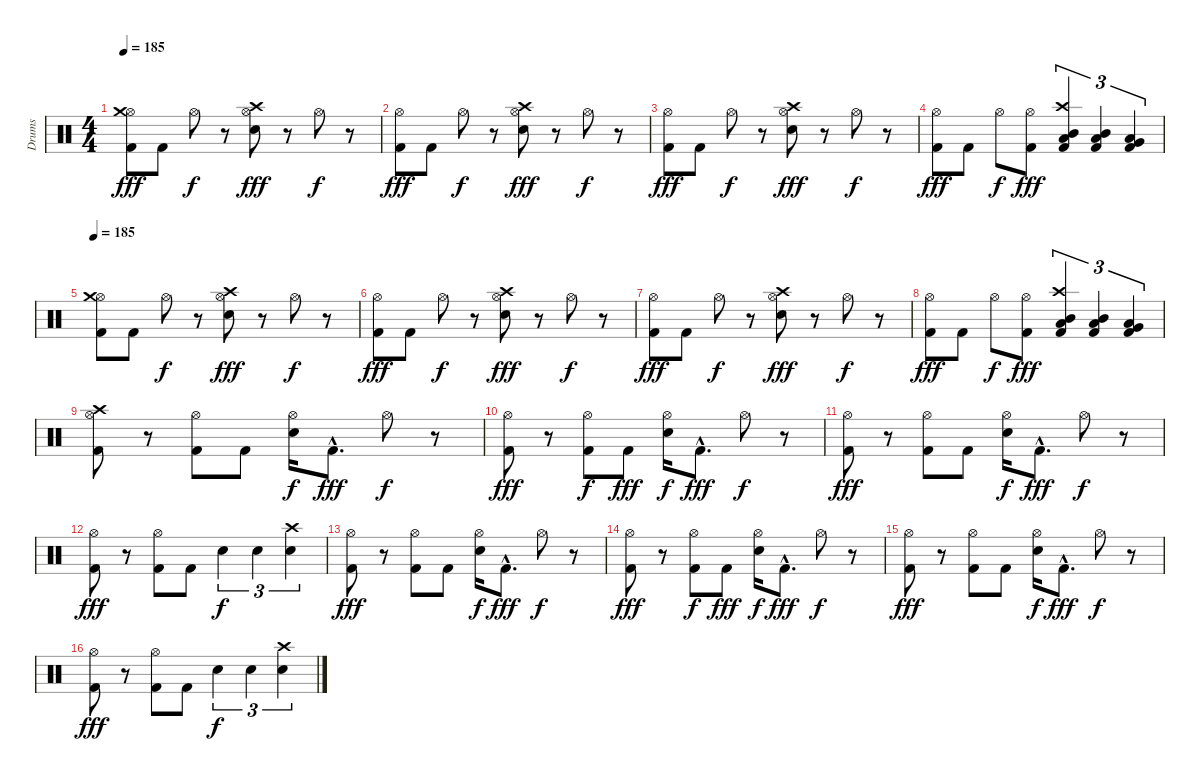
\track ("Drums" "Drums") {instrument percussion}
\staff {score}
\articulation defaults
\ts (4 4)
\tempo 185
\clef neutral
\ks c
("Hi-Hat (open)" "Crash medium (hit)" "Kick (hit) 2").8{dy fff} "Kick (hit) 2".8 "Hi-Hat (open)".8{dy f} r.8 ("Hi-Hat (open)" "Crash high (hit)" "Snare (hit) 2").8{dy fff} r.8 "Hi-Hat (open)".8{dy f} r.8 |
("Hi-Hat (open)" "Kick (hit) 2").8{dy fff} "Kick (hit) 2".8 "Hi-Hat (open)".8{dy f} r.8 ("Hi-Hat (open)" "Crash high (hit)" "Snare (hit) 2").8{dy fff} r.8 "Hi-Hat (open)".8{dy f} r.8 |
("Hi-Hat (open)" "Kick (hit) 2").8{dy fff} "Kick (hit) 2".8 "Hi-Hat (open)".8{dy f} r.8 ("Hi-Hat (open)" "Crash high (hit)" "Snare (hit) 2").8{dy fff} r.8 "Hi-Hat (open)".8{dy f} r.8 |
("Hi-Hat (open)" "Kick (hit) 2").8{dy fff} "Kick (hit) 2".8 "Hi-Hat (open)".8{dy f} ("Hi-Hat (open)" "Kick (hit) 2").8{dy fff} ("Crash high (hit)" "Mid Tom (hit)" "Low Tom (hit)" "Kick (hit) 2").4{tu (3 2)} ("Mid Tom (hit)" "Low Tom (hit)" "Kick (hit) 2").4{tu (3 2)} ("Low Tom (hit)" "Very Low Tom (hit)" "Kick (hit) 2").4{tu (3 2)} |
\tempo 185
("Hi-Hat (open)" "Crash medium (hit)" "Kick (hit) 2").8 "Kick (hit) 2".8 "Hi-Hat (open)".8{dy f} r.8 ("Hi-Hat (open)" "Crash high (hit)" "Snare (hit) 2").8{dy fff} r.8 "Hi-Hat (open)".8{dy f} r.8 |
("Hi-Hat (open)" "Kick (hit) 2").8{dy fff} "Kick (hit) 2".8 "Hi-Hat (open)".8{dy f} r.8 ("Hi-Hat (open)" "Crash high (hit)" "Snare (hit) 2").8{dy fff} r.8 "Hi-Hat (open)".8{dy f} r.8 |
("Hi-Hat (open)" "Kick (hit) 2").8{dy fff} "Kick (hit) 2".8 "Hi-Hat (open)".8{dy f} r.8 ("Hi-Hat (open)" "Crash high (hit)" "Snare (hit) 2").8{dy fff} r.8 "Hi-Hat (open)".8{dy f} r.8 |
("Hi-Hat (open)" "Kick (hit) 2").8{dy fff} "Kick (hit) 2".8 "Hi-Hat (open)".8{dy f} ("Hi-Hat (open)" "Kick (hit) 2").8{dy fff} ("Crash high (hit)" "Mid Tom (hit)" "Low Tom (hit)" "Kick (hit) 2").4{tu (3 2)} ("Mid Tom (hit)" "Low Tom (hit)" "Kick (hit) 2").4{tu (3 2)} ("Low Tom (hit)" "Very Low Tom (hit)" "Kick (hit) 2").4{tu (3 2)} |
("Hi-Hat (open)" "Crash high (hit)" "Kick (hit) 2").8 r.8 ("Hi-Hat (open)" "Kick (hit) 2").8 "Kick (hit) 2".8 ("Hi-Hat (open)" "Snare (hit) 2").16{dy f} "Kick (hit) 2"{hac}.8{d dy fff} "Hi-Hat (open)".8{dy f} r.8 |
("Hi-Hat (open)" "Kick (hit) 2").8{dy fff} r.8 ("Hi-Hat (open)" "Kick (hit) 2").8{dy f} "Kick (hit) 2".8{dy fff} ("Hi-Hat (open)" "Snare (hit) 2").16{dy f} "Kick (hit) 2"{hac}.8{d dy fff} "Hi-Hat (open)".8{dy f} r.8 |
("Hi-Hat (open)" "Kick (hit) 2").8{dy fff} r.8 ("Hi-Hat (open)" "Kick (hit) 2").8 "Kick (hit) 2".8 ("Hi-Hat (open)" "Snare (hit) 2").16{dy f} "Kick (hit) 2"{hac}.8{d dy fff} "Hi-Hat (open)".8{dy f} r.8 |
("Hi-Hat (open)" "Kick (hit) 2").8{dy fff} r.8 ("Hi-Hat (open)" "Kick (hit) 2").8 "Kick (hit) 2".8 "Snare (hit) 2".4{tu (3 2) dy f} "Snare (hit) 2".4{tu (3 2)} ("Crash high (hit)" "Snare (hit) 2").4{tu (3 2)} |
("Hi-Hat (open)" "Kick (hit) 2").8{dy fff} r.8 ("Hi-Hat (open)" "Kick (hit) 2").8 "Kick (hit) 2".8 ("Hi-Hat (open)" "Snare (hit) 2").16{dy f} "Kick (hit) 2"{hac}.8{d dy fff} "Hi-Hat (open)".8{dy f} r.8 |
("Hi-Hat (open)" "Kick (hit) 2").8{dy fff} r.8 ("Hi-Hat (open)" "Kick (hit) 2").8{dy f} "Kick (hit) 2".8{dy fff} ("Hi-Hat (open)" "Snare (hit) 2").16{dy f} "Kick (hit) 2"{hac}.8{d dy fff} "Hi-Hat (open)".8{dy f} r.8 |
("Hi-Hat (open)" "Kick (hit) 2").8{dy fff} r.8 ("Hi-Hat (open)" "Kick (hit) 2").8 "Kick (hit) 2".8 ("Hi-Hat (open)" "Snare (hit) 2").16{dy f} "Kick (hit) 2"{hac}.8{d dy fff} "Hi-Hat (open)".8{dy f} r.8 |
("Hi-Hat (open)" "Kick (hit) 2").8{dy fff} r.8 ("Hi-Hat (open)" "Kick (hit) 2").8 "Kick (hit) 2".8 "Snare (hit) 2".4{tu (3 2) dy f} "Snare (hit) 2".4{tu (3 2)} ("Crash high (hit)" "Snare (hit) 2").4{tu (3 2)}
